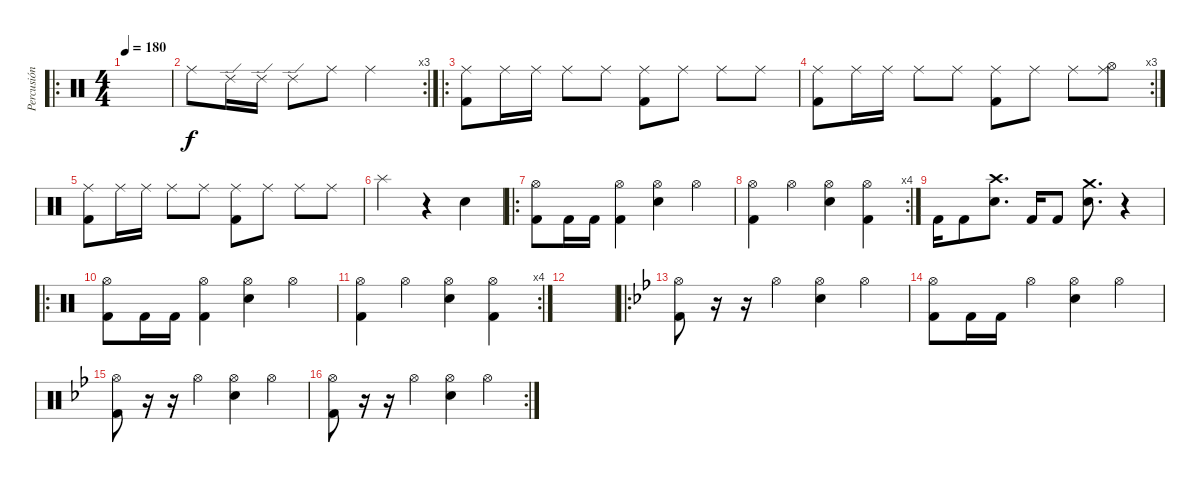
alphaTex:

\track ("Percusión" "Percusión") {instrument percussion}
\staff {score}
\articulation defaults
\ro
\ts (4 4)
\tempo 180
\clef neutral
\ks c
|
\rc 3 "Ride (middle)".8 "Ride (edge) 2".16 "Ride (edge) 2".16 "Ride (edge) 2".8 "Ride (middle)".8 "Ride (middle)".2
|
\ro
("Kick (hit) 2" "Ride (middle)").8 "Ride (middle)".16 "Ride (middle)".16 "Ride (middle)".8 "Ride (middle)".8 ("Kick (hit) 2" "Ride (middle)").8 "Ride (middle)".8 "Ride (middle)".8 "Ride (middle)".8 |
\rc 3
("Kick (hit) 2" "Ride (middle)").8 "Ride (middle)".16 "Ride (middle)".16 "Ride (middle)".8 "Ride (middle)".8 ("Kick (hit) 2" "Ride (middle)").8 "Ride (middle)".8 "Ride (middle)".8 ("Hi-Hat (open)" "Ride (middle)").8 |
("Kick (hit) 2" "Ride (middle)").8 "Ride (middle)".16 "Ride (middle)".16 "Ride (middle)".8 "Ride (middle)".8 ("Kick (hit) 2" "Ride (middle)").8 "Ride (middle)".8 "Ride (middle)".8 "Ride (middle)".8 |
"Splash (hit)".2 r.4 "Electric Snare (hit)".4 |
\ro
("Hi-Hat (open)" "Kick (hit) 2").8 "Kick (hit) 2".16 "Kick (hit) 2".16 ("Hi-Hat (open)" "Kick (hit) 2").4 ("Hi-Hat (open)" "Electric Snare (hit)").4 "Hi-Hat (open)".4 |
\rc 4
("Hi-Hat (open)" "Kick (hit) 2").4 "Hi-Hat (open)".4 ("Hi-Hat (open)" "Electric Snare (hit)").4 ("Hi-Hat (open)" "Kick (hit) 2").4 |
"Kick (hit) 2".16 "Kick (hit) 2".8 ("Crash high (hit)" "Electric Snare (hit)").8{d} "Kick (hit) 2".16 "Kick (hit) 2".8 ("Crash medium (hit)" "Electric Snare (hit)").8{d} r.4 |
\ro
("Hi-Hat (open)" "Kick (hit) 2").8 "Kick (hit) 2".16 "Kick (hit) 2".16 ("Hi-Hat (open)" "Kick (hit) 2").4 ("Hi-Hat (open)" "Electric Snare (hit)").4 "Hi-Hat (open)".4 |
\rc 4
("Hi-Hat (open)" "Kick (hit) 2").4 "Hi-Hat (open)".4 ("Hi-Hat (open)" "Electric Snare (hit)").4 ("Hi-Hat (open)" "Kick (hit) 2").4 |
|
\ro
\ks bb
("Hi-Hat (open)" "Kick (hit) 2").8 r.16 r.16 "Hi-Hat (open)".4 ("Hi-Hat (open)" "Electric Snare (hit)").4 "Hi-Hat (open)".4 |
("Hi-Hat (open)" "Kick (hit) 2").8 "Kick (hit) 2".16 "Kick (hit) 2".16 "Hi-Hat (open)".4 ("Hi-Hat (open)" "Electric Snare (hit)").4 "Hi-Hat (open)".4 |
("Hi-Hat (open)" "Kick (hit) 2").8 r.16 r.16 "Hi-Hat (open)".4 ("Hi-Hat (open)" "Electric Snare (hit)").4 "Hi-Hat (open)".4 |
\rc 2
("Hi-Hat (open)" "Kick (hit) 2").8 r.16 r.16 "Hi-Hat (open)".4 ("Hi-Hat (open)" "Electric Snare (hit)").4 "Hi-Hat (open)".4
